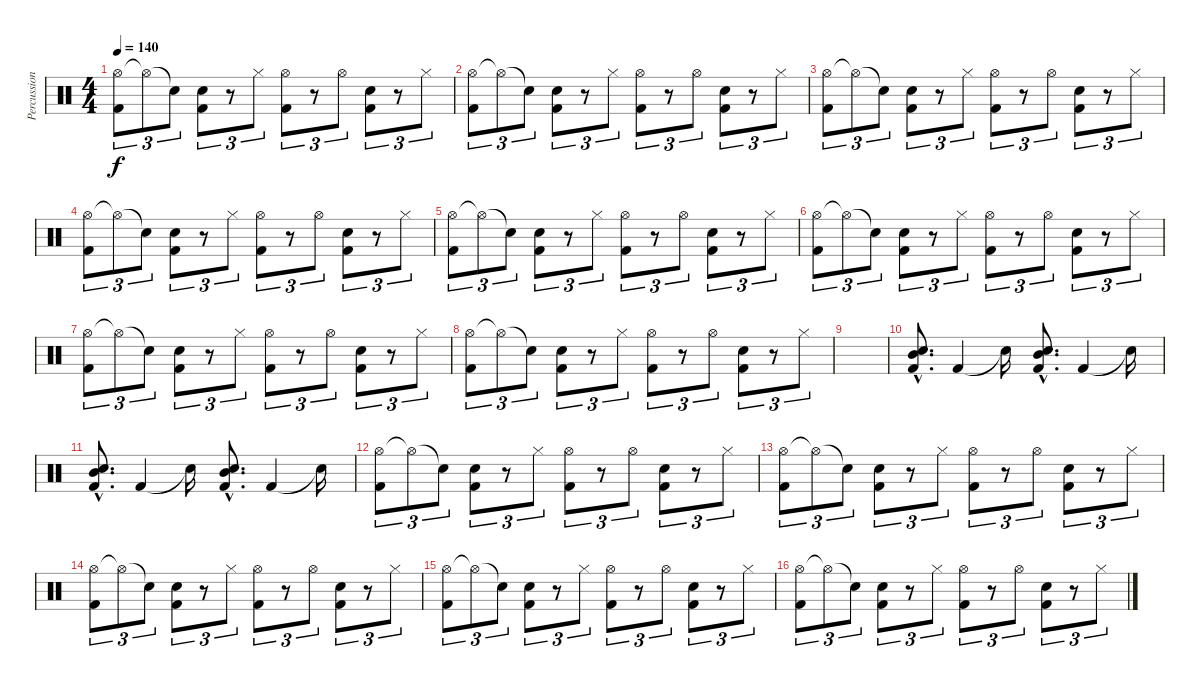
\track ("Percussion" "Percussion") {instrument percussion}
\staff {score}
\articulation defaults
\ts (4 4)
\tempo 140
\clef neutral
\ks c
("Hi-Hat (open)" "Kick (hit) 2").8{tu (3 2) dy f} "Hi-Hat (open)"{t}.8{tu (3 2)} "Snare (hit)"{t}.8{tu (3 2)} ("Snare (hit) 2" "Kick (hit) 2").8{tu (3 2)} r.8{tu (3 2)} "Hi-Hat (closed)".8{tu (3 2)} ("Hi-Hat (open)" "Kick (hit) 2").8{tu (3 2)} r.8{tu (3 2)} "Hi-Hat (open)".8{tu (3 2)} ("Snare (hit) 2" "Kick (hit) 2").8{tu (3 2)} r.8{tu (3 2)} "Hi-Hat (closed)".8{tu (3 2)} |
("Hi-Hat (open)" "Kick (hit) 2").8{tu (3 2)} "Hi-Hat (open)"{t}.8{tu (3 2)} "Snare (hit)"{t}.8{tu (3 2)} ("Snare (hit) 2" "Kick (hit) 2").8{tu (3 2)} r.8{tu (3 2)} "Hi-Hat (closed)".8{tu (3 2)} ("Hi-Hat (open)" "Kick (hit) 2").8{tu (3 2)} r.8{tu (3 2)} "Hi-Hat (open)".8{tu (3 2)} ("Snare (hit) 2" "Kick (hit) 2").8{tu (3 2)} r.8{tu (3 2)} "Hi-Hat (closed)".8{tu (3 2)} |
("Hi-Hat (open)" "Kick (hit) 2").8{tu (3 2)} "Hi-Hat (open)"{t}.8{tu (3 2)} "Snare (hit)"{t}.8{tu (3 2)} ("Snare (hit) 2" "Kick (hit) 2").8{tu (3 2)} r.8{tu (3 2)} "Hi-Hat (closed)".8{tu (3 2)} ("Hi-Hat (open)" "Kick (hit) 2").8{tu (3 2)} r.8{tu (3 2)} "Hi-Hat (open)".8{tu (3 2)} ("Snare (hit) 2" "Kick (hit) 2").8{tu (3 2)} r.8{tu (3 2)} "Hi-Hat (closed)".8{tu (3 2)} |
("Hi-Hat (open)" "Kick (hit) 2").8{tu (3 2)} "Hi-Hat (open)"{t}.8{tu (3 2)} "Snare (hit)"{t}.8{tu (3 2)} ("Snare (hit) 2" "Kick (hit) 2").8{tu (3 2)} r.8{tu (3 2)} "Hi-Hat (closed)".8{tu (3 2)} ("Hi-Hat (open)" "Kick (hit) 2").8{tu (3 2)} r.8{tu (3 2)} "Hi-Hat (open)".8{tu (3 2)} ("Snare (hit) 2" "Kick (hit) 2").8{tu (3 2)} r.8{tu (3 2)} "Hi-Hat (closed)".8{tu (3 2)} |
("Hi-Hat (open)" "Kick (hit) 2").8{tu (3 2)} "Hi-Hat (open)"{t}.8{tu (3 2)} "Snare (hit)"{t}.8{tu (3 2)} ("Snare (hit) 2" "Kick (hit) 2").8{tu (3 2)} r.8{tu (3 2)} "Hi-Hat (closed)".8{tu (3 2)} ("Hi-Hat (open)" "Kick (hit) 2").8{tu (3 2)} r.8{tu (3 2)} "Hi-Hat (open)".8{tu (3 2)} ("Snare (hit) 2" "Kick (hit) 2").8{tu (3 2)} r.8{tu (3 2)} "Hi-Hat (closed)".8{tu (3 2)} |
("Hi-Hat (open)" "Kick (hit) 2").8{tu (3 2)} "Hi-Hat (open)"{t}.8{tu (3 2)} "Snare (hit)"{t}.8{tu (3 2)} ("Snare (hit) 2" "Kick (hit) 2").8{tu (3 2)} r.8{tu (3 2)} "Hi-Hat (closed)".8{tu (3 2)} ("Hi-Hat (open)" "Kick (hit) 2").8{tu (3 2)} r.8{tu (3 2)} "Hi-Hat (open)".8{tu (3 2)} ("Snare (hit) 2" "Kick (hit) 2").8{tu (3 2)} r.8{tu (3 2)} "Hi-Hat (closed)".8{tu (3 2)} |
("Hi-Hat (open)" "Kick (hit) 2").8{tu (3 2)} "Hi-Hat (open)"{t}.8{tu (3 2)} "Snare (hit)"{t}.8{tu (3 2)} ("Snare (hit) 2" "Kick (hit) 2").8{tu (3 2)} r.8{tu (3 2)} "Hi-Hat (closed)".8{tu (3 2)} ("Hi-Hat (open)" "Kick (hit) 2").8{tu (3 2)} r.8{tu (3 2)} "Hi-Hat (open)".8{tu (3 2)} ("Snare (hit) 2" "Kick (hit) 2").8{tu (3 2)} r.8{tu (3 2)} "Hi-Hat (closed)".8{tu (3 2)} |
("Hi-Hat (open)" "Kick (hit) 2").8{tu (3 2)} "Hi-Hat (open)"{t}.8{tu (3 2)} "Snare (hit)"{t}.8{tu (3 2)} ("Snare (hit) 2" "Kick (hit) 2").8{tu (3 2)} r.8{tu (3 2)} "Hi-Hat (closed)".8{tu (3 2)} ("Hi-Hat (open)" "Kick (hit) 2").8{tu (3 2)} r.8{tu (3 2)} "Hi-Hat (open)".8{tu (3 2)} ("Snare (hit) 2" "Kick (hit) 2").8{tu (3 2)} r.8{tu (3 2)} "Hi-Hat (closed)".8{tu (3 2)} |
|
("Mid Tom (hit)"{hac} "Snare (hit) 2"{hac} "Kick (hit) 2"{hac}).8{d} "Kick (hit) 2".4 "Snare (hit)"{t}.16 ("Mid Tom (hit)"{hac} "Snare (hit) 2"{hac} "Kick (hit) 2"{hac}).8{d} "Kick (hit) 2".4 "Snare (hit)"{t}.16 |
("Mid Tom (hit)"{hac} "Snare (hit) 2"{hac} "Kick (hit) 2"{hac}).8{d} "Kick (hit) 2".4 "Snare (hit)"{t}.16 ("Mid Tom (hit)"{hac} "Snare (hit) 2"{hac} "Kick (hit) 2"{hac}).8{d} "Kick (hit) 2".4 "Snare (hit)"{t}.16 |
("Hi-Hat (open)" "Kick (hit) 2").8{tu (3 2)} "Hi-Hat (open)"{t}.8{tu (3 2)} "Snare (hit)"{t}.8{tu (3 2)} ("Snare (hit) 2" "Kick (hit) 2").8{tu (3 2)} r.8{tu (3 2)} "Hi-Hat (closed)".8{tu (3 2)} ("Hi-Hat (open)" "Kick (hit) 2").8{tu (3 2)} r.8{tu (3 2)} "Hi-Hat (open)".8{tu (3 2)} ("Snare (hit) 2" "Kick (hit) 2").8{tu (3 2)} r.8{tu (3 2)} "Hi-Hat (closed)".8{tu (3 2)} |
("Hi-Hat (open)" "Kick (hit) 2").8{tu (3 2)} "Hi-Hat (open)"{t}.8{tu (3 2)} "Snare (hit)"{t}.8{tu (3 2)} ("Snare (hit) 2" "Kick (hit) 2").8{tu (3 2)} r.8{tu (3 2)} "Hi-Hat (closed)".8{tu (3 2)} ("Hi-Hat (open)" "Kick (hit) 2").8{tu (3 2)} r.8{tu (3 2)} "Hi-Hat (open)".8{tu (3 2)} ("Snare (hit) 2" "Kick (hit) 2").8{tu (3 2)} r.8{tu (3 2)} "Hi-Hat (closed)".8{tu (3 2)} |
("Hi-Hat (open)" "Kick (hit) 2").8{tu (3 2)} "Hi-Hat (open)"{t}.8{tu (3 2)} "Snare (hit)"{t}.8{tu (3 2)} ("Snare (hit) 2" "Kick (hit) 2").8{tu (3 2)} r.8{tu (3 2)} "Hi-Hat (closed)".8{tu (3 2)} ("Hi-Hat (open)" "Kick (hit) 2").8{tu (3 2)} r.8{tu (3 2)} "Hi-Hat (open)".8{tu (3 2)} ("Snare (hit) 2" "Kick (hit) 2").8{tu (3 2)} r.8{tu (3 2)} "Hi-Hat (closed)".8{tu (3 2)} |
("Hi-Hat (open)" "Kick (hit) 2").8{tu (3 2)} "Hi-Hat (open)"{t}.8{tu (3 2)} "Snare (hit)"{t}.8{tu (3 2)} ("Snare (hit) 2" "Kick (hit) 2").8{tu (3 2)} r.8{tu (3 2)} "Hi-Hat (closed)".8{tu (3 2)} ("Hi-Hat (open)" "Kick (hit) 2").8{tu (3 2)} r.8{tu (3 2)} "Hi-Hat (open)".8{tu (3 2)} ("Snare (hit) 2" "Kick (hit) 2").8{tu (3 2)} r.8{tu (3 2)} "Hi-Hat (closed)".8{tu (3 2)} |
("Hi-Hat (open)" "Kick (hit) 2").8{tu (3 2)} "Hi-Hat (open)"{t}.8{tu (3 2)} "Snare (hit)"{t}.8{tu (3 2)} ("Snare (hit) 2" "Kick (hit) 2").8{tu (3 2)} r.8{tu (3 2)} "Hi-Hat (closed)".8{tu (3 2)} ("Hi-Hat (open)" "Kick (hit) 2").8{tu (3 2)} r.8{tu (3 2)} "Hi-Hat (open)".8{tu (3 2)} ("Snare (hit) 2" "Kick (hit) 2").8{tu (3 2)} r.8{tu (3 2)} "Hi-Hat (closed)".8{tu (3 2)}
